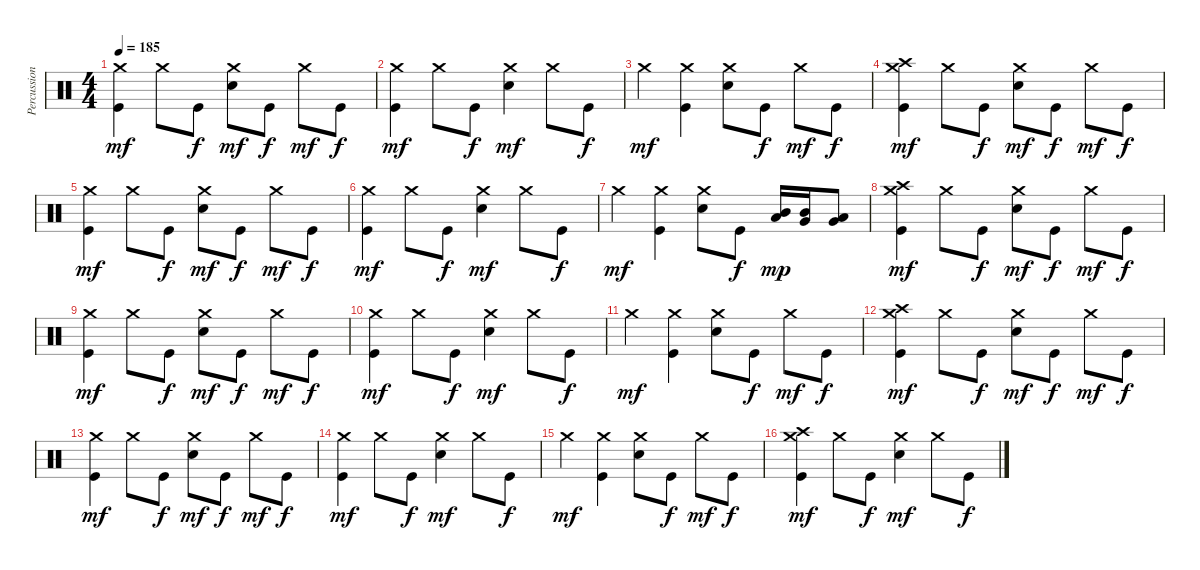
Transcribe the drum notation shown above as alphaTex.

\track ("Percussions" "Percussion") {instrument percussion}
\staff {score}
\articulation defaults
\ts (4 4)
\tempo 185
\clef neutral
\ks c
("Kick (hit)" "Crash medium (hit)").4{dy mf} "Crash medium (hit)".8 "Kick (hit)".8{dy f} ("Electric Snare (hit)" "Crash medium (hit)").8{dy mf} "Kick (hit)".8{dy f} "Crash medium (hit)".8{dy mf} "Kick (hit)".8{dy f} |
("Kick (hit)" "Crash medium (hit)").4{dy mf} "Crash medium (hit)".8 "Kick (hit)".8{dy f} ("Electric Snare (hit)" "Crash medium (hit)").4{dy mf} "Crash medium (hit)".8 "Kick (hit)".8{dy f} |
"Crash medium (hit)".4{dy mf} ("Kick (hit)" "Crash medium (hit)").4 ("Electric Snare (hit)" "Crash medium (hit)").8 "Kick (hit)".8{dy f} "Crash medium (hit)".8{dy mf} "Kick (hit)".8{dy f} |
("Kick (hit)" "Crash medium (hit)" "Crash high (hit)").4{dy mf} "Crash medium (hit)".8 "Kick (hit)".8{dy f} ("Electric Snare (hit)" "Crash medium (hit)").8{dy mf} "Kick (hit)".8{dy f} "Crash medium (hit)".8{dy mf} "Kick (hit)".8{dy f} |
("Kick (hit)" "Crash medium (hit)").4{dy mf} "Crash medium (hit)".8 "Kick (hit)".8{dy f} ("Electric Snare (hit)" "Crash medium (hit)").8{dy mf} "Kick (hit)".8{dy f} "Crash medium (hit)".8{dy mf} "Kick (hit)".8{dy f} |
("Kick (hit)" "Crash medium (hit)").4{dy mf} "Crash medium (hit)".8 "Kick (hit)".8{dy f} ("Electric Snare (hit)" "Crash medium (hit)").4{dy mf} "Crash medium (hit)".8 "Kick (hit)".8{dy f} |
"Crash medium (hit)".4{dy mf} ("Kick (hit)" "Crash medium (hit)").4 ("Electric Snare (hit)" "Crash medium (hit)").8 "Kick (hit)".8{dy f} ("Low Tom (hit)" "Mid Tom (hit)").16{dy mp} ("Very Low Tom (hit)" "Mid Tom (hit)").16 ("Very Low Tom (hit)" "Low Tom (hit)").8 |
("Kick (hit)" "Crash medium (hit)" "Crash high (hit)").4{dy mf} "Crash medium (hit)".8 "Kick (hit)".8{dy f} ("Electric Snare (hit)" "Crash medium (hit)").8{dy mf} "Kick (hit)".8{dy f} "Crash medium (hit)".8{dy mf} "Kick (hit)".8{dy f} |
("Kick (hit)" "Crash medium (hit)").4{dy mf} "Crash medium (hit)".8 "Kick (hit)".8{dy f} ("Electric Snare (hit)" "Crash medium (hit)").8{dy mf} "Kick (hit)".8{dy f} "Crash medium (hit)".8{dy mf} "Kick (hit)".8{dy f} |
("Kick (hit)" "Crash medium (hit)").4{dy mf} "Crash medium (hit)".8 "Kick (hit)".8{dy f} ("Electric Snare (hit)" "Crash medium (hit)").4{dy mf} "Crash medium (hit)".8 "Kick (hit)".8{dy f} |
"Crash medium (hit)".4{dy mf} ("Kick (hit)" "Crash medium (hit)").4 ("Electric Snare (hit)" "Crash medium (hit)").8 "Kick (hit)".8{dy f} "Crash medium (hit)".8{dy mf} "Kick (hit)".8{dy f} |
("Kick (hit)" "Crash medium (hit)" "Crash high (hit)").4{dy mf} "Crash medium (hit)".8 "Kick (hit)".8{dy f} ("Electric Snare (hit)" "Crash medium (hit)").8{dy mf} "Kick (hit)".8{dy f} "Crash medium (hit)".8{dy mf} "Kick (hit)".8{dy f} |
("Kick (hit)" "Crash medium (hit)").4{dy mf} "Crash medium (hit)".8 "Kick (hit)".8{dy f} ("Electric Snare (hit)" "Crash medium (hit)").8{dy mf} "Kick (hit)".8{dy f} "Crash medium (hit)".8{dy mf} "Kick (hit)".8{dy f} |
("Kick (hit)" "Crash medium (hit)").4{dy mf} "Crash medium (hit)".8 "Kick (hit)".8{dy f} ("Electric Snare (hit)" "Crash medium (hit)").4{dy mf} "Crash medium (hit)".8 "Kick (hit)".8{dy f} |
"Crash medium (hit)".4{dy mf} ("Kick (hit)" "Crash medium (hit)").4 ("Electric Snare (hit)" "Crash medium (hit)").8 "Kick (hit)".8{dy f} "Crash medium (hit)".8{dy mf} "Kick (hit)".8{dy f} |
("Kick (hit)" "Crash medium (hit)" "Crash high (hit)").4{dy mf} "Crash medium (hit)".8 "Kick (hit)".8{dy f} ("Electric Snare (hit)" "Crash medium (hit)").4{dy mf} "Crash medium (hit)".8 "Kick (hit)".8{dy f}
